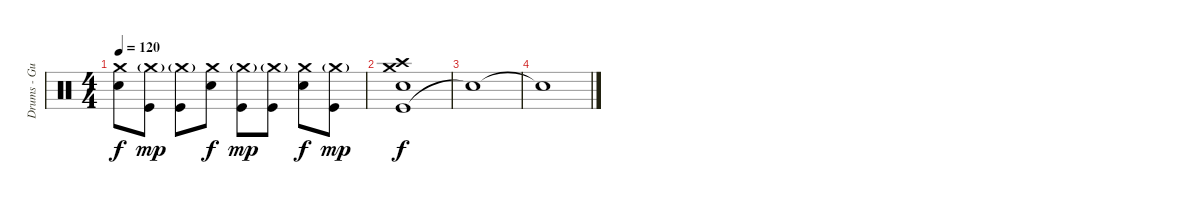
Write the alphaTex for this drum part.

\track ("Drums - Gustav" "Drums - Gu") {instrument percussion}
\staff {score}
\articulation defaults
\ts (4 4)
\tempo 120
\clef neutral
\ks c
("Snare (hit) 2" "Crash medium (hit)").8{dy f} ("Kick (hit)" "Crash medium (hit)"{g}).8{dy mp} ("Kick (hit)" "Crash medium (hit)"{g}).8 ("Snare (hit) 2" "Crash medium (hit)").8{dy f} ("Kick (hit)" "Crash medium (hit)"{g}).8{dy mp} ("Kick (hit)" "Crash medium (hit)"{g}).8 ("Snare (hit) 2" "Crash medium (hit)").8{dy f} ("Kick (hit)" "Crash medium (hit)"{g}).8{dy mp} |
("Kick (hit)" "Snare (hit) 2" "Crash high (hit)" "Crash medium (hit)").1{dy f} |
"Snare (hit)"{t}.1 |
"Snare (hit)"{t}.1
